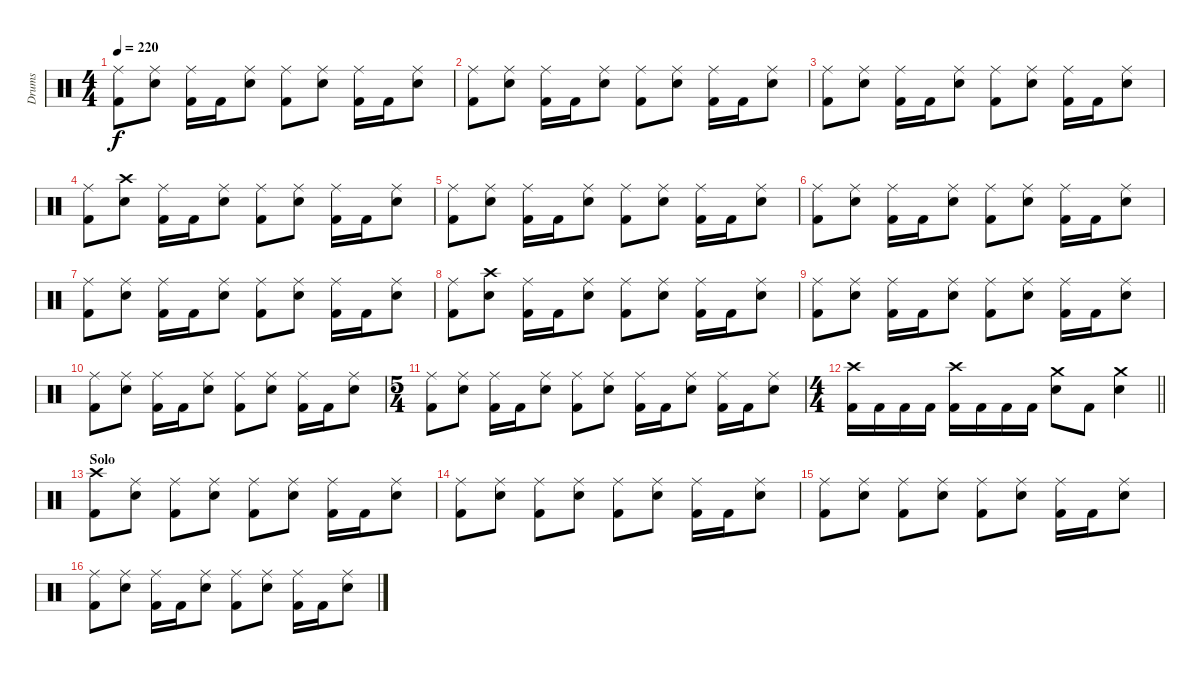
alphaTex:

\track ("Drums" "Drums") {instrument percussion}
\staff {score}
\articulation defaults
\ts (4 4)
\tempo 220
\clef neutral
\ks c
("Ride (middle)" "Kick (hit) 2").8{dy f} ("Ride (middle)" "Snare (hit) 2").8 ("Ride (middle)" "Kick (hit) 2").16 "Kick (hit) 2".16 ("Ride (middle)" "Snare (hit) 2").8 ("Ride (middle)" "Kick (hit) 2").8 ("Ride (middle)" "Snare (hit) 2").8 ("Ride (middle)" "Kick (hit) 2").16 "Kick (hit) 2".16 ("Ride (middle)" "Snare (hit) 2").8 |
("Ride (middle)" "Kick (hit) 2").8 ("Ride (middle)" "Snare (hit) 2").8 ("Ride (middle)" "Kick (hit) 2").16 "Kick (hit) 2".16 ("Ride (middle)" "Snare (hit) 2").8 ("Ride (middle)" "Kick (hit) 2").8 ("Ride (middle)" "Snare (hit) 2").8 ("Ride (middle)" "Kick (hit) 2").16 "Kick (hit) 2".16 ("Ride (middle)" "Snare (hit) 2").8 |
("Ride (middle)" "Kick (hit) 2").8 ("Ride (middle)" "Snare (hit) 2").8 ("Ride (middle)" "Kick (hit) 2").16 "Kick (hit) 2".16 ("Ride (middle)" "Snare (hit) 2").8 ("Ride (middle)" "Kick (hit) 2").8 ("Ride (middle)" "Snare (hit) 2").8 ("Ride (middle)" "Kick (hit) 2").16 "Kick (hit) 2".16 ("Ride (middle)" "Snare (hit) 2").8 |
("Ride (middle)" "Kick (hit) 2").8 ("Crash high (hit)" "Snare (hit) 2").8 ("Ride (middle)" "Kick (hit) 2").16 "Kick (hit) 2".16 ("Ride (middle)" "Snare (hit) 2").8 ("Ride (middle)" "Kick (hit) 2").8 ("Ride (middle)" "Snare (hit) 2").8 ("Ride (middle)" "Kick (hit) 2").16 "Kick (hit) 2".16 ("Ride (middle)" "Snare (hit) 2").8 |
("Ride (middle)" "Kick (hit) 2").8 ("Ride (middle)" "Snare (hit) 2").8 ("Ride (middle)" "Kick (hit) 2").16 "Kick (hit) 2".16 ("Ride (middle)" "Snare (hit) 2").8 ("Ride (middle)" "Kick (hit) 2").8 ("Ride (middle)" "Snare (hit) 2").8 ("Ride (middle)" "Kick (hit) 2").16 "Kick (hit) 2".16 ("Ride (middle)" "Snare (hit) 2").8 |
("Ride (middle)" "Kick (hit) 2").8 ("Ride (middle)" "Snare (hit) 2").8 ("Ride (middle)" "Kick (hit) 2").16 "Kick (hit) 2".16 ("Ride (middle)" "Snare (hit) 2").8 ("Ride (middle)" "Kick (hit) 2").8 ("Ride (middle)" "Snare (hit) 2").8 ("Ride (middle)" "Kick (hit) 2").16 "Kick (hit) 2".16 ("Ride (middle)" "Snare (hit) 2").8 |
("Ride (middle)" "Kick (hit) 2").8 ("Ride (middle)" "Snare (hit) 2").8 ("Ride (middle)" "Kick (hit) 2").16 "Kick (hit) 2".16 ("Ride (middle)" "Snare (hit) 2").8 ("Ride (middle)" "Kick (hit) 2").8 ("Ride (middle)" "Snare (hit) 2").8 ("Ride (middle)" "Kick (hit) 2").16 "Kick (hit) 2".16 ("Ride (middle)" "Snare (hit) 2").8 |
("Ride (middle)" "Kick (hit) 2").8 ("Crash high (hit)" "Snare (hit) 2").8 ("Ride (middle)" "Kick (hit) 2").16 "Kick (hit) 2".16 ("Ride (middle)" "Snare (hit) 2").8 ("Ride (middle)" "Kick (hit) 2").8 ("Ride (middle)" "Snare (hit) 2").8 ("Ride (middle)" "Kick (hit) 2").16 "Kick (hit) 2".16 ("Ride (middle)" "Snare (hit) 2").8 |
("Ride (middle)" "Kick (hit) 2").8 ("Ride (middle)" "Snare (hit) 2").8 ("Ride (middle)" "Kick (hit) 2").16 "Kick (hit) 2".16 ("Ride (middle)" "Snare (hit) 2").8 ("Ride (middle)" "Kick (hit) 2").8 ("Ride (middle)" "Snare (hit) 2").8 ("Ride (middle)" "Kick (hit) 2").16 "Kick (hit) 2".16 ("Ride (middle)" "Snare (hit) 2").8 |
("Ride (middle)" "Kick (hit) 2").8 ("Ride (middle)" "Snare (hit) 2").8 ("Ride (middle)" "Kick (hit) 2").16 "Kick (hit) 2".16 ("Ride (middle)" "Snare (hit) 2").8 ("Ride (middle)" "Kick (hit) 2").8 ("Ride (middle)" "Snare (hit) 2").8 ("Ride (middle)" "Kick (hit) 2").16 "Kick (hit) 2".16 ("Ride (middle)" "Snare (hit) 2").8 |
\ts (5 4)
("Ride (middle)" "Kick (hit) 2").8 ("Ride (middle)" "Snare (hit) 2").8 ("Ride (middle)" "Kick (hit) 2").16 "Kick (hit) 2".16 ("Ride (middle)" "Snare (hit) 2").8 ("Ride (middle)" "Kick (hit) 2").8 ("Ride (middle)" "Snare (hit) 2").8 ("Ride (middle)" "Kick (hit) 2").16 "Kick (hit) 2".16 ("Ride (middle)" "Snare (hit) 2").8 ("Ride (middle)" "Kick (hit) 2").16 "Kick (hit) 2".16 ("Ride (middle)" "Snare (hit) 2").8 |
\ts (4 4)
\barLineRight lightlight
("Crash high (hit)" "Kick (hit) 2").16 "Kick (hit) 2".16 "Kick (hit) 2".16 "Kick (hit) 2".16 ("Crash high (hit)" "Kick (hit) 2").16 "Kick (hit) 2".16 "Kick (hit) 2".16 "Kick (hit) 2".16 ("Crash medium (hit)" "Snare (hit) 2").8 "Kick (hit) 2".8 ("Crash medium (hit)" "Snare (hit) 2").4 |
\section ("" "Solo")
("Crash high (hit)" "Kick (hit) 2").8 ("Ride (middle)" "Snare (hit) 2").8 ("Ride (middle)" "Kick (hit) 2").8 ("Ride (middle)" "Snare (hit) 2").8 ("Ride (middle)" "Kick (hit) 2").8 ("Ride (middle)" "Snare (hit) 2").8 ("Ride (middle)" "Kick (hit) 2").16 "Kick (hit) 2".16 ("Ride (middle)" "Snare (hit) 2").8 |
("Ride (middle)" "Kick (hit) 2").8 ("Ride (middle)" "Snare (hit) 2").8 ("Ride (middle)" "Kick (hit) 2").8 ("Ride (middle)" "Snare (hit) 2").8 ("Ride (middle)" "Kick (hit) 2").8 ("Ride (middle)" "Snare (hit) 2").8 ("Ride (middle)" "Kick (hit) 2").16 "Kick (hit) 2".16 ("Ride (middle)" "Snare (hit) 2").8 |
("Ride (middle)" "Kick (hit) 2").8 ("Ride (middle)" "Snare (hit) 2").8 ("Ride (middle)" "Kick (hit) 2").8 ("Ride (middle)" "Snare (hit) 2").8 ("Ride (middle)" "Kick (hit) 2").8 ("Ride (middle)" "Snare (hit) 2").8 ("Ride (middle)" "Kick (hit) 2").16 "Kick (hit) 2".16 ("Ride (middle)" "Snare (hit) 2").8 |
("Ride (middle)" "Kick (hit) 2").8 ("Ride (middle)" "Snare (hit) 2").8 ("Ride (middle)" "Kick (hit) 2").16 "Kick (hit) 2".16 ("Ride (middle)" "Snare (hit) 2").8 ("Ride (middle)" "Kick (hit) 2").8 ("Ride (middle)" "Snare (hit) 2").8 ("Ride (middle)" "Kick (hit) 2").16 "Kick (hit) 2".16 ("Ride (middle)" "Snare (hit) 2").8
